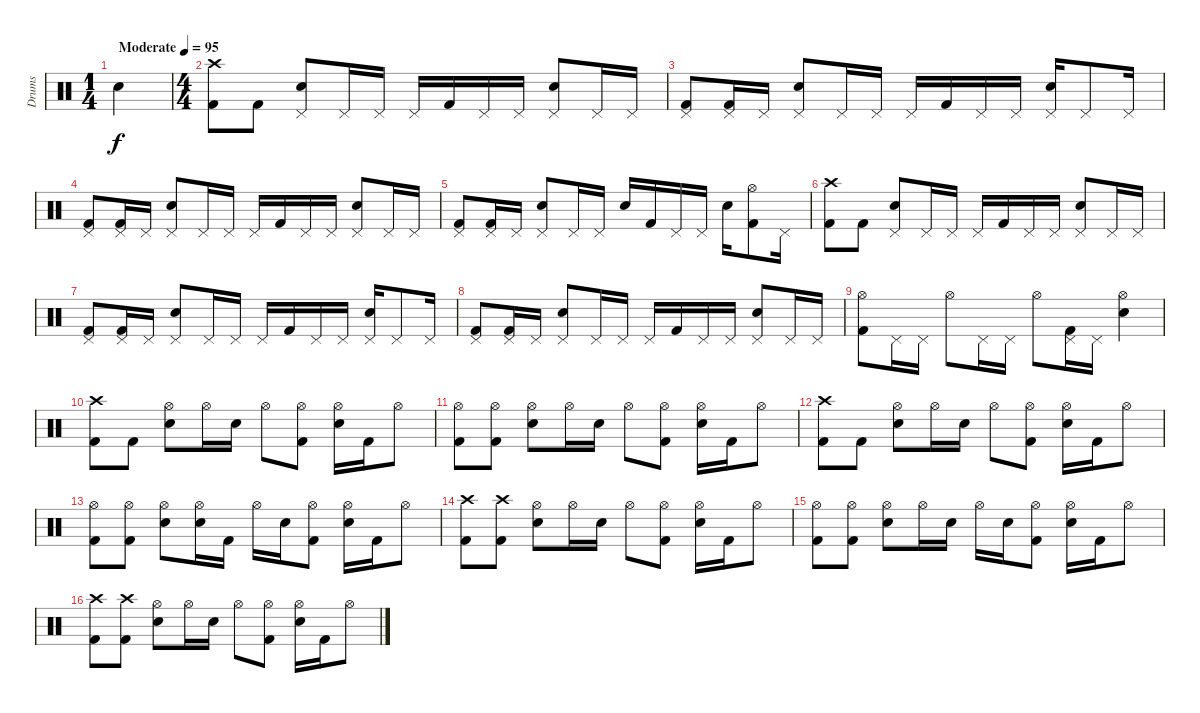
\track ("Drums" "Drums") {instrument percussion}
\staff {score}
\articulation defaults
\ts (1 4)
\tempo (95 "Moderate")
\clef neutral
\ks c "Electric Snare (hit)".4{dy f volume 16}
|
\ts (4 4)
("Crash high (hit)" "Kick (hit) 2").8 "Kick (hit) 2".8 ("Pedal Hi-Hat (hit)" "Electric Snare (hit)").8 "Pedal Hi-Hat (hit)".16 "Pedal Hi-Hat (hit)".16 "Pedal Hi-Hat (hit)".16 "Kick (hit) 2".16 "Pedal Hi-Hat (hit)".16 "Pedal Hi-Hat (hit)".16 ("Pedal Hi-Hat (hit)" "Electric Snare (hit)").8 "Pedal Hi-Hat (hit)".16 "Pedal Hi-Hat (hit)".16 |
("Pedal Hi-Hat (hit)" "Kick (hit) 2").8 ("Pedal Hi-Hat (hit)" "Kick (hit) 2").16 "Pedal Hi-Hat (hit)".16 ("Pedal Hi-Hat (hit)" "Electric Snare (hit)").8 "Pedal Hi-Hat (hit)".16 "Pedal Hi-Hat (hit)".16 "Pedal Hi-Hat (hit)".16 "Kick (hit) 2".16 "Pedal Hi-Hat (hit)".16 "Pedal Hi-Hat (hit)".16 ("Pedal Hi-Hat (hit)" "Electric Snare (hit)").16 "Pedal Hi-Hat (hit)".8 "Pedal Hi-Hat (hit)".16 |
("Pedal Hi-Hat (hit)" "Kick (hit) 2").8 ("Pedal Hi-Hat (hit)" "Kick (hit) 2").16 "Pedal Hi-Hat (hit)".16 ("Pedal Hi-Hat (hit)" "Electric Snare (hit)").8 "Pedal Hi-Hat (hit)".16 "Pedal Hi-Hat (hit)".16 "Pedal Hi-Hat (hit)".16 "Kick (hit) 2".16 "Pedal Hi-Hat (hit)".16 "Pedal Hi-Hat (hit)".16 ("Pedal Hi-Hat (hit)" "Electric Snare (hit)").8 "Pedal Hi-Hat (hit)".16 "Pedal Hi-Hat (hit)".16 |
("Pedal Hi-Hat (hit)" "Kick (hit) 2").8 ("Pedal Hi-Hat (hit)" "Kick (hit) 2").16 "Pedal Hi-Hat (hit)".16 ("Pedal Hi-Hat (hit)" "Electric Snare (hit)").8 "Pedal Hi-Hat (hit)".16 "Pedal Hi-Hat (hit)".16 "Snare (hit)".16 "Kick (hit) 2".16 "Pedal Hi-Hat (hit)".16 "Pedal Hi-Hat (hit)".16 "Electric Snare (hit)".16 ("Hi-Hat (open)" "Kick (hit) 2").8 "Pedal Hi-Hat (hit)".16 |
("Crash high (hit)" "Kick (hit) 2").8 "Kick (hit) 2".8 ("Pedal Hi-Hat (hit)" "Electric Snare (hit)").8 "Pedal Hi-Hat (hit)".16 "Pedal Hi-Hat (hit)".16 "Pedal Hi-Hat (hit)".16 "Kick (hit) 2".16 "Pedal Hi-Hat (hit)".16 "Pedal Hi-Hat (hit)".16 ("Pedal Hi-Hat (hit)" "Electric Snare (hit)").8 "Pedal Hi-Hat (hit)".16 "Pedal Hi-Hat (hit)".16 |
("Pedal Hi-Hat (hit)" "Kick (hit) 2").8 ("Pedal Hi-Hat (hit)" "Kick (hit) 2").16 "Pedal Hi-Hat (hit)".16 ("Pedal Hi-Hat (hit)" "Electric Snare (hit)").8 "Pedal Hi-Hat (hit)".16 "Pedal Hi-Hat (hit)".16 "Pedal Hi-Hat (hit)".16 "Kick (hit) 2".16 "Pedal Hi-Hat (hit)".16 "Pedal Hi-Hat (hit)".16 ("Pedal Hi-Hat (hit)" "Electric Snare (hit)").16 "Pedal Hi-Hat (hit)".8 "Pedal Hi-Hat (hit)".16 |
("Pedal Hi-Hat (hit)" "Kick (hit) 2").8 ("Pedal Hi-Hat (hit)" "Kick (hit) 2").16 "Pedal Hi-Hat (hit)".16 ("Pedal Hi-Hat (hit)" "Electric Snare (hit)").8 "Pedal Hi-Hat (hit)".16 "Pedal Hi-Hat (hit)".16 "Pedal Hi-Hat (hit)".16 "Kick (hit) 2".16 "Pedal Hi-Hat (hit)".16 "Pedal Hi-Hat (hit)".16 ("Pedal Hi-Hat (hit)" "Electric Snare (hit)").8 "Pedal Hi-Hat (hit)".16 "Pedal Hi-Hat (hit)".16 |
("Hi-Hat (open)" "Kick (hit) 2").8 "Pedal Hi-Hat (hit)".16 "Pedal Hi-Hat (hit)".16 "Hi-Hat (open)".8 "Pedal Hi-Hat (hit)".16 "Pedal Hi-Hat (hit)".16 "Hi-Hat (open)".8 ("Pedal Hi-Hat (hit)" "Kick (hit) 2").16 "Pedal Hi-Hat (hit)".16 ("Hi-Hat (open)" "Electric Snare (hit)").4 |
("Crash high (hit)" "Kick (hit) 2").8 "Kick (hit) 2".8 ("Hi-Hat (open)" "Electric Snare (hit)").8 "Hi-Hat (open)".16 "Electric Snare (hit)".16 "Hi-Hat (open)".8 ("Hi-Hat (open)" "Kick (hit) 2").8 ("Hi-Hat (open)" "Electric Snare (hit)").16 "Kick (hit) 2".16 "Hi-Hat (open)".8 |
("Hi-Hat (open)" "Kick (hit) 2").8 ("Hi-Hat (open)" "Kick (hit) 2").8 ("Hi-Hat (open)" "Electric Snare (hit)").8 "Hi-Hat (open)".16 "Electric Snare (hit)".16 "Hi-Hat (open)".8 ("Hi-Hat (open)" "Kick (hit) 2").8 ("Hi-Hat (open)" "Electric Snare (hit)").16 "Kick (hit) 2".16 "Hi-Hat (open)".8 |
("Crash high (hit)" "Kick (hit) 2").8 "Kick (hit) 2".8 ("Hi-Hat (open)" "Electric Snare (hit)").8 "Hi-Hat (open)".16 "Electric Snare (hit)".16 "Hi-Hat (open)".8 ("Hi-Hat (open)" "Kick (hit) 2").8 ("Hi-Hat (open)" "Electric Snare (hit)").16 "Kick (hit) 2".16 "Hi-Hat (open)".8 |
("Hi-Hat (open)" "Kick (hit) 2").8 ("Hi-Hat (open)" "Kick (hit) 2").8 ("Hi-Hat (open)" "Electric Snare (hit)").8 ("Hi-Hat (open)" "Electric Snare (hit)").16 "Kick (hit) 2".16 "Hi-Hat (open)".16 "Electric Snare (hit)".16 ("Hi-Hat (open)" "Kick (hit) 2").8 ("Hi-Hat (open)" "Electric Snare (hit)").16 "Kick (hit) 2".16 "Hi-Hat (open)".8 |
("Crash high (hit)" "Kick (hit) 2").8 ("Crash high (hit)" "Kick (hit) 2").8 ("Hi-Hat (open)" "Electric Snare (hit)").8 "Hi-Hat (open)".16 "Electric Snare (hit)".16 "Hi-Hat (open)".8 ("Hi-Hat (open)" "Kick (hit) 2").8 ("Hi-Hat (open)" "Electric Snare (hit)").16 "Kick (hit) 2".16 "Hi-Hat (open)".8 |
("Hi-Hat (open)" "Kick (hit) 2").8 ("Hi-Hat (open)" "Kick (hit) 2").8 ("Hi-Hat (open)" "Electric Snare (hit)").8 "Hi-Hat (open)".16 "Electric Snare (hit)".16 "Hi-Hat (open)".16 "Electric Snare (hit)".16 ("Hi-Hat (open)" "Kick (hit) 2").8 ("Hi-Hat (open)" "Electric Snare (hit)").16 "Kick (hit) 2".16 "Hi-Hat (open)".8 |
("Crash high (hit)" "Kick (hit) 2").8 ("Crash high (hit)" "Kick (hit) 2").8 ("Hi-Hat (open)" "Electric Snare (hit)").8 "Hi-Hat (open)".16 "Electric Snare (hit)".16 "Hi-Hat (open)".8 ("Hi-Hat (open)" "Kick (hit) 2").8 ("Hi-Hat (open)" "Electric Snare (hit)").16 "Kick (hit) 2".16 "Hi-Hat (open)".8
